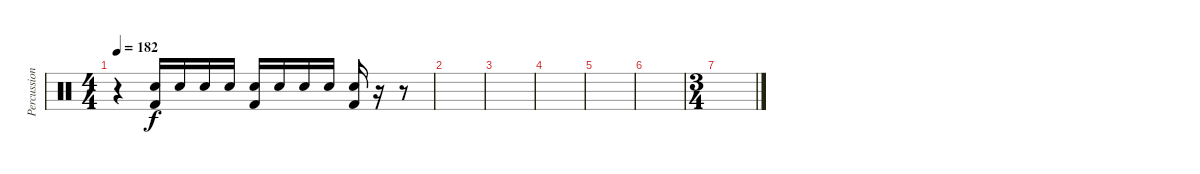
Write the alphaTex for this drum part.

\track ("Percussion" "Percussion") {instrument percussion}
\staff {score}
\articulation defaults
\ts (4 4)
\tempo 182
\clef neutral
\ks c
r.4{dy f} ("Snare (hit) 2" "Kick (hit) 2").16 "Snare (hit) 2".16 "Snare (hit) 2".16 "Snare (hit) 2".16 ("Snare (hit) 2" "Kick (hit) 2").16 "Snare (hit) 2".16 "Snare (hit) 2".16 "Snare (hit) 2".16 ("Snare (hit) 2" "Kick (hit) 2").16 r.16 r.8 |
|
|
|
|
|
\ts (3 4)
